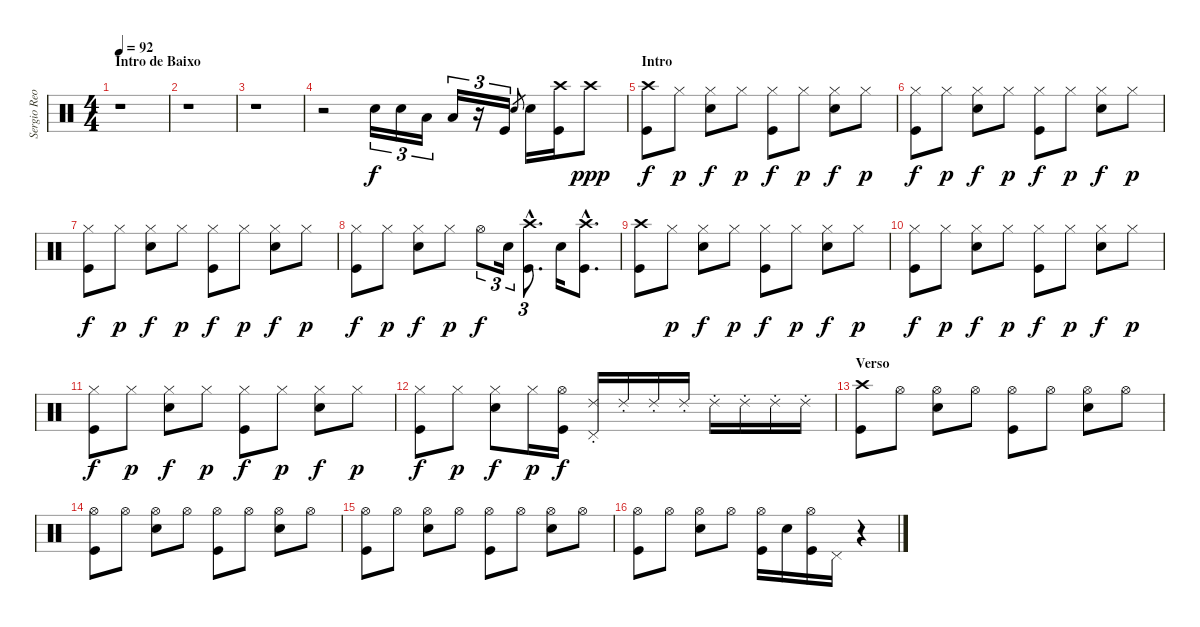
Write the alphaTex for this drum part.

\track ("Sergio Reoli" "Sergio Reo") {instrument percussion}
\staff {score}
\articulation defaults
\ts (4 4)
\section ("" "Intro de Baixo")
\tempo 92
\clef neutral
\ks c
r.1{dy f} |
r.1 |
r.1 |
r.2 "Electric Snare (hit)".16{tu (3 2)} "Electric Snare (hit)".16{tu (3 2)} "Low Tom (hit)".16{tu (3 2)} "Low Tom (hit)".16{tu (3 2)} r.16{tu (3 2)} "Kick (hit)".16{tu (3 2)} "Electric Snare (hit)".8{gr} "Electric Snare (hit)".16 ("Crash high (hit)" "Kick (hit)").16 "Crash high (hit)".8{dy ppp} |
\section ("" "Intro")
("Crash high (hit)" "Kick (hit)").8{dy f} "Hi-Hat (closed)".8{dy p} ("Hi-Hat (closed)" "Electric Snare (hit)").8{dy f} "Hi-Hat (closed)".8{dy p} ("Hi-Hat (closed)" "Kick (hit)").8{dy f} "Hi-Hat (closed)".8{dy p} ("Hi-Hat (closed)" "Electric Snare (hit)").8{dy f} "Hi-Hat (closed)".8{dy p} |
("Hi-Hat (closed)" "Kick (hit)").8{dy f} "Hi-Hat (closed)".8{dy p} ("Hi-Hat (closed)" "Electric Snare (hit)").8{dy f} "Hi-Hat (closed)".8{dy p} ("Hi-Hat (closed)" "Kick (hit)").8{dy f} "Hi-Hat (closed)".8{dy p} ("Hi-Hat (closed)" "Electric Snare (hit)").8{dy f} "Hi-Hat (closed)".8{dy p} |
("Hi-Hat (closed)" "Kick (hit)").8{dy f} "Hi-Hat (closed)".8{dy p} ("Hi-Hat (closed)" "Electric Snare (hit)").8{dy f} "Hi-Hat (closed)".8{dy p} ("Hi-Hat (closed)" "Kick (hit)").8{dy f} "Hi-Hat (closed)".8{dy p} ("Hi-Hat (closed)" "Electric Snare (hit)").8{dy f} "Hi-Hat (closed)".8{dy p} |
("Hi-Hat (closed)" "Kick (hit)").8{dy f} "Hi-Hat (closed)".8{dy p} ("Hi-Hat (closed)" "Electric Snare (hit)").8{dy f} "Hi-Hat (closed)".8{dy p} "Hi-Hat (open)".8{tu (3 2) dy f} "Electric Snare (hit)".16{tu (3 2)} ("Crash high (hit)"{hac} "Kick (hit)"{hac}).8{d tu (3 2)} "Electric Snare (hit)".16 ("Crash high (hit)"{hac} "Kick (hit)"{hac}).8{d} |
("Crash high (hit)" "Kick (hit)").8 "Hi-Hat (closed)".8{dy p} ("Hi-Hat (closed)" "Electric Snare (hit)").8{dy f} "Hi-Hat (closed)".8{dy p} ("Hi-Hat (closed)" "Kick (hit)").8{dy f} "Hi-Hat (closed)".8{dy p} ("Hi-Hat (closed)" "Electric Snare (hit)").8{dy f} "Hi-Hat (closed)".8{dy p} |
("Hi-Hat (closed)" "Kick (hit)").8{dy f} "Hi-Hat (closed)".8{dy p} ("Hi-Hat (closed)" "Electric Snare (hit)").8{dy f} "Hi-Hat (closed)".8{dy p} ("Hi-Hat (closed)" "Kick (hit)").8{dy f} "Hi-Hat (closed)".8{dy p} ("Hi-Hat (closed)" "Electric Snare (hit)").8{dy f} "Hi-Hat (closed)".8{dy p} |
("Hi-Hat (closed)" "Kick (hit)").8{dy f} "Hi-Hat (closed)".8{dy p} ("Hi-Hat (closed)" "Electric Snare (hit)").8{dy f} "Hi-Hat (closed)".8{dy p} ("Hi-Hat (closed)" "Kick (hit)").8{dy f} "Hi-Hat (closed)".8{dy p} ("Hi-Hat (closed)" "Electric Snare (hit)").8{dy f} "Hi-Hat (closed)".8{dy p} |
("Hi-Hat (closed)" "Kick (hit)").8{dy f} "Hi-Hat (closed)".8{dy p} ("Hi-Hat (closed)" "Electric Snare (hit)").8{dy f} "Hi-Hat (closed)".16{dy p} ("Hi-Hat (open)" "Kick (hit)").16{dy f} ("Ride (choke) 2" "Pedal Hi-Hat (hit)").16 "Ride (choke) 2".16 "Ride (choke) 2".16 "Ride (choke) 2".16 "Ride (choke) 2".16 "Ride (choke) 2".16 "Ride (choke) 2".16 "Ride (choke) 2".16 |
\section ("" "Verso")
("Crash high (hit)" "Kick (hit)").8 "Hi-Hat (open)".8 ("Hi-Hat (open)" "Electric Snare (hit)").8 "Hi-Hat (open)".8 ("Hi-Hat (open)" "Kick (hit)").8 "Hi-Hat (open)".8 ("Hi-Hat (open)" "Electric Snare (hit)").8 "Hi-Hat (open)".8 |
("Hi-Hat (open)" "Kick (hit)").8 "Hi-Hat (open)".8 ("Hi-Hat (open)" "Electric Snare (hit)").8 "Hi-Hat (open)".8 ("Hi-Hat (open)" "Kick (hit)").8 "Hi-Hat (open)".8 ("Hi-Hat (open)" "Electric Snare (hit)").8 "Hi-Hat (open)".8 |
("Hi-Hat (open)" "Kick (hit)").8 "Hi-Hat (open)".8 ("Hi-Hat (open)" "Electric Snare (hit)").8 "Hi-Hat (open)".8 ("Hi-Hat (open)" "Kick (hit)").8 "Hi-Hat (open)".8 ("Hi-Hat (open)" "Electric Snare (hit)").8 "Hi-Hat (open)".8 |
("Hi-Hat (open)" "Kick (hit)").8 "Hi-Hat (open)".8 ("Hi-Hat (open)" "Electric Snare (hit)").8 "Hi-Hat (open)".8 ("Hi-Hat (open)" "Kick (hit)").16 "Electric Snare (hit)".16 ("Hi-Hat (open)" "Kick (hit)").16 "Pedal Hi-Hat (hit)".16 r.4
